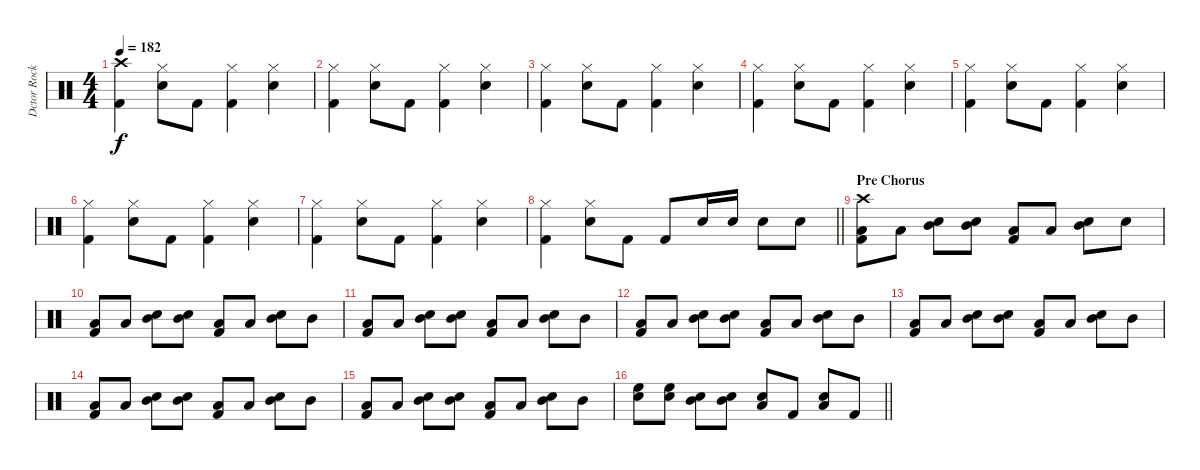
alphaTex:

\track ("Dctor Rock" "Dctor Rock") {instrument percussion}
\staff {score}
\articulation defaults
\ts (4 4)
\tempo 182
\clef neutral
\ks c
("Crash high (hit)" "Kick (hit) 2").4{dy f} ("Hi-Hat (closed)" "Snare (hit) 2").8 "Kick (hit) 2".8 ("Hi-Hat (closed)" "Kick (hit) 2").4 ("Hi-Hat (closed)" "Snare (hit) 2").4 |
("Hi-Hat (closed)" "Kick (hit) 2").4 ("Hi-Hat (closed)" "Snare (hit) 2").8 "Kick (hit) 2".8 ("Hi-Hat (closed)" "Kick (hit) 2").4 ("Hi-Hat (closed)" "Snare (hit) 2").4 |
("Hi-Hat (closed)" "Kick (hit) 2").4 ("Hi-Hat (closed)" "Snare (hit) 2").8 "Kick (hit) 2".8 ("Hi-Hat (closed)" "Kick (hit) 2").4 ("Hi-Hat (closed)" "Snare (hit) 2").4 |
("Hi-Hat (closed)" "Kick (hit) 2").4 ("Hi-Hat (closed)" "Snare (hit) 2").8 "Kick (hit) 2".8 ("Hi-Hat (closed)" "Kick (hit) 2").4 ("Hi-Hat (closed)" "Snare (hit) 2").4 |
("Hi-Hat (closed)" "Kick (hit) 2").4 ("Hi-Hat (closed)" "Snare (hit) 2").8 "Kick (hit) 2".8 ("Hi-Hat (closed)" "Kick (hit) 2").4 ("Hi-Hat (closed)" "Snare (hit) 2").4 |
("Hi-Hat (closed)" "Kick (hit) 2").4 ("Hi-Hat (closed)" "Snare (hit) 2").8 "Kick (hit) 2".8 ("Hi-Hat (closed)" "Kick (hit) 2").4 ("Hi-Hat (closed)" "Snare (hit) 2").4 |
("Hi-Hat (closed)" "Kick (hit) 2").4 ("Hi-Hat (closed)" "Snare (hit) 2").8 "Kick (hit) 2".8 ("Hi-Hat (closed)" "Kick (hit) 2").4 ("Hi-Hat (closed)" "Snare (hit) 2").4 |
\barLineRight lightlight
("Hi-Hat (closed)" "Kick (hit) 2").4 ("Hi-Hat (closed)" "Snare (hit) 2").8 "Kick (hit) 2".8 "Kick (hit) 2".8 "Snare (hit) 2".16 "Snare (hit) 2".16 "Snare (hit) 2".8 "Snare (hit) 2".8 |
\section ("" "Pre Chorus")
("Crash high (hit)" "Low Tom (hit)" "Kick (hit) 2").8 "Low Tom (hit)".8 ("Mid Tom (hit)" "Snare (hit) 2").8 ("Mid Tom (hit)" "Snare (hit) 2").8 ("Low Tom (hit)" "Kick (hit) 2").8 "Low Tom (hit)".8 ("Mid Tom (hit)" "Snare (hit) 2").8 "Snare (hit) 2".8 |
("Low Tom (hit)" "Kick (hit) 2").8 "Low Tom (hit)".8 ("Mid Tom (hit)" "Snare (hit) 2").8 ("Mid Tom (hit)" "Snare (hit) 2").8 ("Low Tom (hit)" "Kick (hit) 2").8 "Low Tom (hit)".8 ("Mid Tom (hit)" "Snare (hit) 2").8 "Mid Tom (hit)".8 |
("Low Tom (hit)" "Kick (hit) 2").8 "Low Tom (hit)".8 ("Mid Tom (hit)" "Snare (hit) 2").8 ("Mid Tom (hit)" "Snare (hit) 2").8 ("Low Tom (hit)" "Kick (hit) 2").8 "Low Tom (hit)".8 ("Mid Tom (hit)" "Snare (hit) 2").8 "Mid Tom (hit)".8 |
("Low Tom (hit)" "Kick (hit) 2").8 "Low Tom (hit)".8 ("Mid Tom (hit)" "Snare (hit) 2").8 ("Mid Tom (hit)" "Snare (hit) 2").8 ("Low Tom (hit)" "Kick (hit) 2").8 "Low Tom (hit)".8 ("Mid Tom (hit)" "Snare (hit) 2").8 "Mid Tom (hit)".8 |
("Low Tom (hit)" "Kick (hit) 2").8 "Low Tom (hit)".8 ("Mid Tom (hit)" "Snare (hit) 2").8 ("Mid Tom (hit)" "Snare (hit) 2").8 ("Low Tom (hit)" "Kick (hit) 2").8 "Low Tom (hit)".8 ("Mid Tom (hit)" "Snare (hit) 2").8 "Mid Tom (hit)".8 |
("Low Tom (hit)" "Kick (hit) 2").8 "Low Tom (hit)".8 ("Mid Tom (hit)" "Snare (hit) 2").8 ("Mid Tom (hit)" "Snare (hit) 2").8 ("Low Tom (hit)" "Kick (hit) 2").8 "Low Tom (hit)".8 ("Mid Tom (hit)" "Snare (hit) 2").8 "Mid Tom (hit)".8 |
("Low Tom (hit)" "Kick (hit) 2").8 "Low Tom (hit)".8 ("Mid Tom (hit)" "Snare (hit) 2").8 ("Mid Tom (hit)" "Snare (hit) 2").8 ("Low Tom (hit)" "Kick (hit) 2").8 "Low Tom (hit)".8 ("Mid Tom (hit)" "Snare (hit) 2").8 "Mid Tom (hit)".8 |
\barLineRight lightlight
("High Floor Tom (hit)" "Snare (hit) 2").8 ("High Floor Tom (hit)" "Snare (hit) 2").8 ("Mid Tom (hit)" "Snare (hit) 2").8 ("Mid Tom (hit)" "Snare (hit) 2").8 ("Low Tom (hit)" "Snare (hit) 2").8 "Kick (hit) 2".8 ("Low Tom (hit)" "Snare (hit) 2").8 "Kick (hit) 2".8
